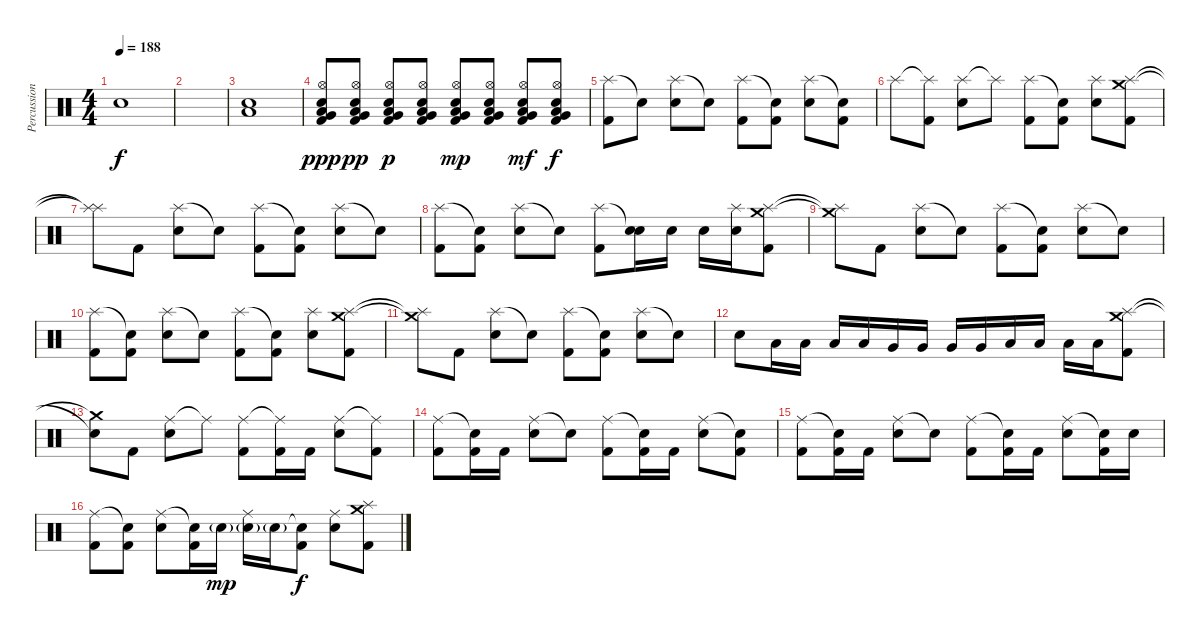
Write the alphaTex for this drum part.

\track ("Percussion" "Percussion") {instrument percussion}
\staff {score}
\articulation defaults
\ts (4 4)
\tempo 188
\clef neutral
\ks c "Electric Snare (hit)".1{dy f}
|
|
("Electric Snare (hit)" "Low Floor Tom (hit)").1 |
("Hi-Hat (open)" "Electric Snare (hit)" "Low Floor Tom (hit)" "Very Low Tom (hit)" "Kick (hit) 2").8{dy ppp} ("Hi-Hat (open)" "Electric Snare (hit)" "Low Floor Tom (hit)" "Very Low Tom (hit)" "Kick (hit) 2").8{dy pp} ("Hi-Hat (open)" "Electric Snare (hit)" "Low Floor Tom (hit)" "Very Low Tom (hit)" "Kick (hit) 2").8{dy p} ("Hi-Hat (open)" "Electric Snare (hit)" "Low Floor Tom (hit)" "Very Low Tom (hit)" "Kick (hit) 2").8 ("Hi-Hat (open)" "Electric Snare (hit)" "Low Floor Tom (hit)" "Very Low Tom (hit)" "Kick (hit) 2").8{dy mp} ("Hi-Hat (open)" "Electric Snare (hit)" "Low Floor Tom (hit)" "Very Low Tom (hit)" "Kick (hit) 2").8 ("Hi-Hat (open)" "Electric Snare (hit)" "Low Floor Tom (hit)" "Very Low Tom (hit)" "Kick (hit) 2").8{dy mf} ("Hi-Hat (open)" "Electric Snare (hit)" "Low Floor Tom (hit)" "Very Low Tom (hit)" "Kick (hit) 2").8{dy f} |
("Splash (hit)" "Kick (hit) 2").8 "Snare (hit)"{t}.8 ("Splash (hit)" "Electric Snare (hit)").8 "Snare (hit)"{t}.8 ("Splash (hit)" "Kick (hit) 2").8 ("Snare (hit)"{t} "Kick (hit) 2").8 ("Splash (hit)" "Electric Snare (hit)").8 ("Snare (hit)"{t} "Kick (hit) 2").8 |
"Splash (hit)".8 ("Splash (hit)"{t} "Kick (hit) 2").8 ("Splash (hit)" "Electric Snare (hit)").8 "Splash (hit)"{t}.8 ("Splash (hit)" "Kick (hit) 2").8 ("Snare (hit)"{t} "Kick (hit) 2").8 ("Splash (hit)" "Electric Snare (hit)").8 ("Crash medium (hit)" "Splash (hit)" "Kick (hit) 2").8 |
("Splash (hit)"{t} "Splash (hit)"{t}).8 "Kick (hit) 2".8 ("Splash (hit)" "Electric Snare (hit)").8 "Snare (hit)"{t}.8 ("Splash (hit)" "Kick (hit) 2").8 ("Snare (hit)"{t} "Kick (hit) 2").8 ("Splash (hit)" "Electric Snare (hit)").8 "Snare (hit)"{t}.8 |
("Splash (hit)" "Kick (hit) 2").8 ("Snare (hit)"{t} "Kick (hit) 2").8 ("Splash (hit)" "Electric Snare (hit)").8 "Snare (hit)"{t}.8 ("Splash (hit)" "Kick (hit) 2").8 ("Snare (hit)"{t} "Electric Snare (hit)").16 "Electric Snare (hit)".16 "Electric Snare (hit)".16 ("Splash (hit)" "Electric Snare (hit)").16 ("Crash medium (hit)" "Splash (hit)" "Kick (hit) 2").8 |
("Crash medium (hit)"{t} "Splash (hit)"{t}).8 "Kick (hit) 2".8 ("Splash (hit)" "Electric Snare (hit)").8 "Snare (hit)"{t}.8 ("Splash (hit)" "Kick (hit) 2").8 ("Snare (hit)"{t} "Kick (hit) 2").8 ("Splash (hit)" "Electric Snare (hit)").8 "Snare (hit)"{t}.8 |
("Splash (hit)" "Kick (hit) 2").8 ("Snare (hit)"{t} "Kick (hit) 2").8 ("Splash (hit)" "Electric Snare (hit)").8 "Snare (hit)"{t}.8 ("Splash (hit)" "Kick (hit) 2").8 ("Snare (hit)"{t} "Kick (hit) 2").8 ("Splash (hit)" "Electric Snare (hit)").8 ("Crash medium (hit)" "Splash (hit)" "Kick (hit) 2").8 |
("Crash medium (hit)"{t} "Splash (hit)"{t}).8 "Kick (hit) 2".8 ("Splash (hit)" "Electric Snare (hit)").8 "Snare (hit)"{t}.8 ("Splash (hit)" "Kick (hit) 2").8 ("Snare (hit)"{t} "Kick (hit) 2").8 ("Splash (hit)" "Electric Snare (hit)").8 "Snare (hit)"{t}.8 |
"Electric Snare (hit)".8 "Low Floor Tom (hit)".16 "Low Floor Tom (hit)".16 "Low Floor Tom (hit)".16 "Low Floor Tom (hit)".16 "Very Low Tom (hit)".16 "Very Low Tom (hit)".16 "Very Low Tom (hit)".16 "Very Low Tom (hit)".16 "Low Floor Tom (hit)".16 "Low Floor Tom (hit)".16 "Low Floor Tom (hit)".16 "Low Floor Tom (hit)".16 ("Crash medium (hit)" "Splash (hit)" "Kick (hit) 2").8 |
("Crash medium (hit)"{t} "Snare (hit)"{t}).8 "Kick (hit) 2".8 ("Ride (middle)" "Electric Snare (hit)").8 "Ride (middle)"{t}.8 ("Ride (middle)" "Kick (hit) 2").8 ("Ride (middle)"{t} "Kick (hit) 2").16 "Kick (hit) 2".16 ("Ride (middle)" "Electric Snare (hit)").8 ("Ride (middle)"{t} "Kick (hit) 2").8 |
("Ride (middle)" "Kick (hit) 2").8 ("Snare (hit)"{t} "Kick (hit) 2").16 "Kick (hit) 2".16 ("Ride (middle)" "Electric Snare (hit)").8 "Snare (hit)"{t}.8 ("Ride (middle)" "Kick (hit) 2").8 ("Snare (hit)"{t} "Kick (hit) 2").16 "Kick (hit) 2".16 ("Ride (middle)" "Electric Snare (hit)").8 ("Snare (hit)"{t} "Kick (hit) 2").8 |
("Ride (middle)" "Kick (hit) 2").8 ("Snare (hit)"{t} "Kick (hit) 2").16 "Kick (hit) 2".16 ("Ride (middle)" "Electric Snare (hit)").8 "Snare (hit)"{t}.8 ("Ride (middle)" "Kick (hit) 2").8 ("Snare (hit)"{t} "Kick (hit) 2").16 "Kick (hit) 2".16 ("Ride (middle)" "Electric Snare (hit)").8 ("Snare (hit)"{t} "Kick (hit) 2").16 "Electric Snare (hit)".16 |
("Ride (middle)" "Kick (hit) 2").8 ("Snare (hit)"{t} "Kick (hit) 2").8 ("Ride (middle)" "Electric Snare (hit)").8 ("Snare (hit)"{t} "Kick (hit) 2").16 "Electric Snare (hit)"{g}.16{dy mp} ("Ride (middle)" "Electric Snare (hit)"{g}).16 "Electric Snare (hit)"{g}.16 ("Snare (hit)"{t} "Kick (hit) 2").8{dy f} ("Ride (middle)" "Electric Snare (hit)").8 ("Crash medium (hit)" "Splash (hit)" "Kick (hit) 2").8
